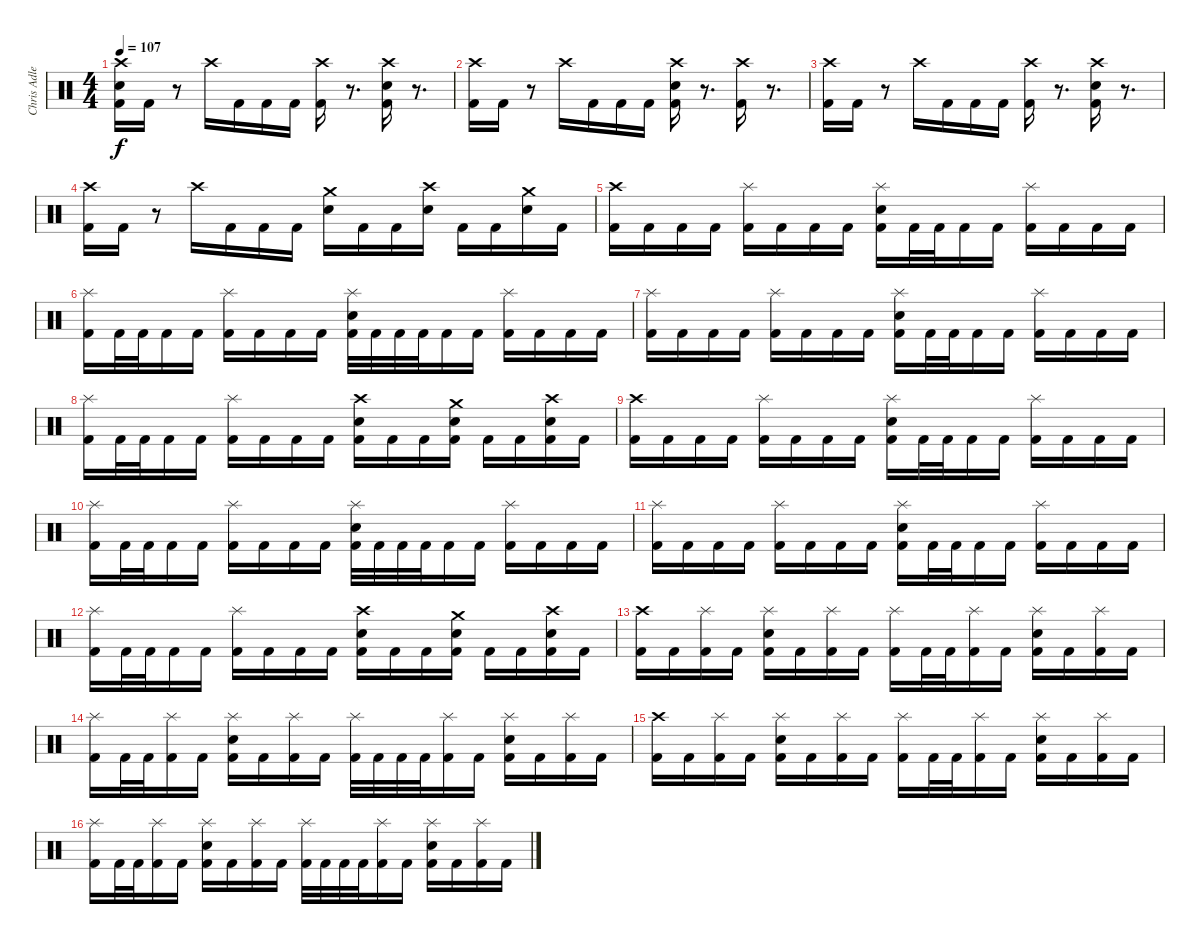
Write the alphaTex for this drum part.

\track ("Chris Adler" "Chris Adle") {instrument percussion}
\staff {score}
\articulation defaults
\ts (4 4)
\tempo 107
\clef neutral
\ks c
("Kick (hit) 2" "Electric Snare (hit)" "Crash high (hit)").16{dy f} "Kick (hit) 2".16 r.8 "Crash high (hit)".16 "Kick (hit) 2".16 "Kick (hit) 2".16 "Kick (hit) 2".16 ("Kick (hit) 2" "Crash high (hit)").16 r.8{d} ("Kick (hit) 2" "Electric Snare (hit)" "Crash high (hit)").16 r.8{d} |
("Kick (hit) 2" "Crash high (hit)").16 "Kick (hit) 2".16 r.8 "Crash high (hit)".16 "Kick (hit) 2".16 "Kick (hit) 2".16 "Kick (hit) 2".16 ("Kick (hit) 2" "Electric Snare (hit)" "Crash high (hit)").16 r.8{d} ("Kick (hit) 2" "Crash high (hit)").16 r.8{d} |
("Kick (hit) 2" "Crash high (hit)").16 "Kick (hit) 2".16 r.8 "Crash high (hit)".16 "Kick (hit) 2".16 "Kick (hit) 2".16 "Kick (hit) 2".16 ("Kick (hit) 2" "Crash high (hit)").16 r.8{d} ("Kick (hit) 2" "Electric Snare (hit)" "Crash high (hit)").16 r.8{d} |
("Kick (hit) 2" "Crash high (hit)").16 "Kick (hit) 2".16 r.8 "Crash high (hit)".16 "Kick (hit) 2".16 "Kick (hit) 2".16 "Kick (hit) 2".16 ("Electric Snare (hit)" "Crash medium (hit)").16 "Kick (hit) 2".16 "Kick (hit) 2".16 ("Electric Snare (hit)" "Crash high (hit)").16 "Kick (hit) 2".16 "Kick (hit) 2".16 ("Electric Snare (hit)" "Crash medium (hit)").16 "Kick (hit) 2".16 |
("Kick (hit) 2" "Crash high (hit)").16 "Kick (hit) 2".16 "Kick (hit) 2".16 "Kick (hit) 2".16 ("Kick (hit) 2" "Splash (hit)").16 "Kick (hit) 2".16 "Kick (hit) 2".16 "Kick (hit) 2".16 ("Kick (hit) 2" "Electric Snare (hit)" "Splash (hit)").16 "Kick (hit) 2".32 "Kick (hit) 2".32 "Kick (hit) 2".16 "Kick (hit) 2".16 ("Kick (hit) 2" "Splash (hit)").16 "Kick (hit) 2".16 "Kick (hit) 2".16 "Kick (hit) 2".16 |
("Kick (hit) 2" "Splash (hit)").16 "Kick (hit) 2".32 "Kick (hit) 2".32 "Kick (hit) 2".16 "Kick (hit) 2".16 ("Kick (hit) 2" "Splash (hit)").16 "Kick (hit) 2".16 "Kick (hit) 2".16 "Kick (hit) 2".16 ("Kick (hit) 2" "Electric Snare (hit)" "Splash (hit)").32 "Kick (hit) 2".32 "Kick (hit) 2".32 "Kick (hit) 2".32 "Kick (hit) 2".16 "Kick (hit) 2".16 ("Kick (hit) 2" "Splash (hit)").16 "Kick (hit) 2".16 "Kick (hit) 2".16 "Kick (hit) 2".16 |
("Kick (hit) 2" "Splash (hit)").16 "Kick (hit) 2".16 "Kick (hit) 2".16 "Kick (hit) 2".16 ("Kick (hit) 2" "Splash (hit)").16 "Kick (hit) 2".16 "Kick (hit) 2".16 "Kick (hit) 2".16 ("Kick (hit) 2" "Electric Snare (hit)" "Splash (hit)").16 "Kick (hit) 2".32 "Kick (hit) 2".32 "Kick (hit) 2".16 "Kick (hit) 2".16 ("Kick (hit) 2" "Splash (hit)").16 "Kick (hit) 2".16 "Kick (hit) 2".16 "Kick (hit) 2".16 |
("Kick (hit) 2" "Splash (hit)").16 "Kick (hit) 2".32 "Kick (hit) 2".32 "Kick (hit) 2".16 "Kick (hit) 2".16 ("Kick (hit) 2" "Splash (hit)").16 "Kick (hit) 2".16 "Kick (hit) 2".16 "Kick (hit) 2".16 ("Kick (hit) 2" "Electric Snare (hit)" "Crash high (hit)").16 "Kick (hit) 2".16 "Kick (hit) 2".16 ("Kick (hit) 2" "Electric Snare (hit)" "Crash medium (hit)").16 "Kick (hit) 2".16 "Kick (hit) 2".16 ("Kick (hit) 2" "Electric Snare (hit)" "Crash high (hit)").16 "Kick (hit) 2".16 |
("Kick (hit) 2" "Crash high (hit)").16 "Kick (hit) 2".16 "Kick (hit) 2".16 "Kick (hit) 2".16 ("Kick (hit) 2" "Splash (hit)").16 "Kick (hit) 2".16 "Kick (hit) 2".16 "Kick (hit) 2".16 ("Kick (hit) 2" "Electric Snare (hit)" "Splash (hit)").16 "Kick (hit) 2".32 "Kick (hit) 2".32 "Kick (hit) 2".16 "Kick (hit) 2".16 ("Kick (hit) 2" "Splash (hit)").16 "Kick (hit) 2".16 "Kick (hit) 2".16 "Kick (hit) 2".16 |
("Kick (hit) 2" "Splash (hit)").16 "Kick (hit) 2".32 "Kick (hit) 2".32 "Kick (hit) 2".16 "Kick (hit) 2".16 ("Kick (hit) 2" "Splash (hit)").16 "Kick (hit) 2".16 "Kick (hit) 2".16 "Kick (hit) 2".16 ("Kick (hit) 2" "Electric Snare (hit)" "Splash (hit)").32 "Kick (hit) 2".32 "Kick (hit) 2".32 "Kick (hit) 2".32 "Kick (hit) 2".16 "Kick (hit) 2".16 ("Kick (hit) 2" "Splash (hit)").16 "Kick (hit) 2".16 "Kick (hit) 2".16 "Kick (hit) 2".16 |
("Kick (hit) 2" "Splash (hit)").16 "Kick (hit) 2".16 "Kick (hit) 2".16 "Kick (hit) 2".16 ("Kick (hit) 2" "Splash (hit)").16 "Kick (hit) 2".16 "Kick (hit) 2".16 "Kick (hit) 2".16 ("Kick (hit) 2" "Electric Snare (hit)" "Splash (hit)").16 "Kick (hit) 2".32 "Kick (hit) 2".32 "Kick (hit) 2".16 "Kick (hit) 2".16 ("Kick (hit) 2" "Splash (hit)").16 "Kick (hit) 2".16 "Kick (hit) 2".16 "Kick (hit) 2".16 |
("Kick (hit) 2" "Splash (hit)").16 "Kick (hit) 2".32 "Kick (hit) 2".32 "Kick (hit) 2".16 "Kick (hit) 2".16 ("Kick (hit) 2" "Splash (hit)").16 "Kick (hit) 2".16 "Kick (hit) 2".16 "Kick (hit) 2".16 ("Kick (hit) 2" "Electric Snare (hit)" "Crash high (hit)").16 "Kick (hit) 2".16 "Kick (hit) 2".16 ("Kick (hit) 2" "Electric Snare (hit)" "Crash medium (hit)").16 "Kick (hit) 2".16 "Kick (hit) 2".16 ("Kick (hit) 2" "Electric Snare (hit)" "Crash high (hit)").16 "Kick (hit) 2".16 |
("Kick (hit) 2" "Crash high (hit)").16 "Kick (hit) 2".16 ("Kick (hit) 2" "Splash (hit)").16 "Kick (hit) 2".16 ("Kick (hit) 2" "Electric Snare (hit)" "Splash (hit)").16 "Kick (hit) 2".16 ("Kick (hit) 2" "Splash (hit)").16 "Kick (hit) 2".16 ("Kick (hit) 2" "Splash (hit)").16 "Kick (hit) 2".32 "Kick (hit) 2".32 ("Kick (hit) 2" "Splash (hit)").16 "Kick (hit) 2".16 ("Kick (hit) 2" "Electric Snare (hit)" "Splash (hit)").16 "Kick (hit) 2".16 ("Kick (hit) 2" "Splash (hit)").16 "Kick (hit) 2".16 |
("Kick (hit) 2" "Splash (hit)").16 "Kick (hit) 2".32 "Kick (hit) 2".32 ("Kick (hit) 2" "Splash (hit)").16 "Kick (hit) 2".16 ("Kick (hit) 2" "Electric Snare (hit)" "Splash (hit)").16 "Kick (hit) 2".16 ("Kick (hit) 2" "Splash (hit)").16 "Kick (hit) 2".16 ("Kick (hit) 2" "Splash (hit)").32 "Kick (hit) 2".32 "Kick (hit) 2".32 "Kick (hit) 2".32 ("Kick (hit) 2" "Splash (hit)").16 "Kick (hit) 2".16 ("Kick (hit) 2" "Electric Snare (hit)" "Splash (hit)").16 "Kick (hit) 2".16 ("Kick (hit) 2" "Splash (hit)").16 "Kick (hit) 2".16 |
("Kick (hit) 2" "Crash high (hit)").16 "Kick (hit) 2".16 ("Kick (hit) 2" "Splash (hit)").16 "Kick (hit) 2".16 ("Kick (hit) 2" "Electric Snare (hit)" "Splash (hit)").16 "Kick (hit) 2".16 ("Kick (hit) 2" "Splash (hit)").16 "Kick (hit) 2".16 ("Kick (hit) 2" "Splash (hit)").16 "Kick (hit) 2".32 "Kick (hit) 2".32 ("Kick (hit) 2" "Splash (hit)").16 "Kick (hit) 2".16 ("Kick (hit) 2" "Electric Snare (hit)" "Splash (hit)").16 "Kick (hit) 2".16 ("Kick (hit) 2" "Splash (hit)").16 "Kick (hit) 2".16 |
("Kick (hit) 2" "Splash (hit)").16 "Kick (hit) 2".32 "Kick (hit) 2".32 ("Kick (hit) 2" "Splash (hit)").16 "Kick (hit) 2".16 ("Kick (hit) 2" "Electric Snare (hit)" "Splash (hit)").16 "Kick (hit) 2".16 ("Kick (hit) 2" "Splash (hit)").16 "Kick (hit) 2".16 ("Kick (hit) 2" "Splash (hit)").32 "Kick (hit) 2".32 "Kick (hit) 2".32 "Kick (hit) 2".32 ("Kick (hit) 2" "Splash (hit)").16 "Kick (hit) 2".16 ("Kick (hit) 2" "Electric Snare (hit)" "Splash (hit)").16 "Kick (hit) 2".16 ("Kick (hit) 2" "Splash (hit)").16 "Kick (hit) 2".16
